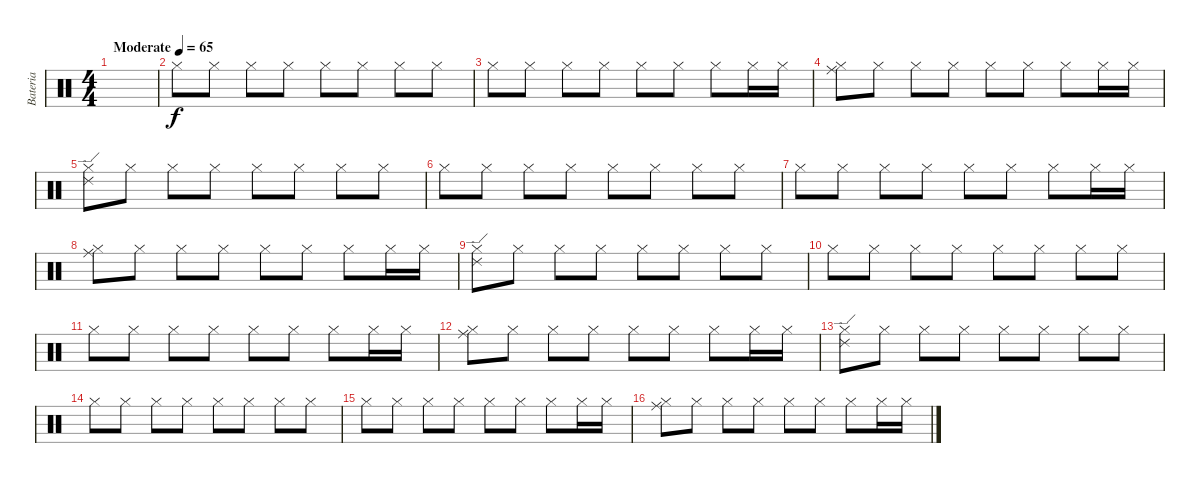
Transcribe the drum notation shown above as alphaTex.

\track ("Bateria" "Bateria") {instrument percussion}
\staff {score}
\articulation defaults
\ts (4 4)
\tempo (65 "Moderate")
\clef neutral
\ks c
|
"Hi-Hat (closed)".8 "Hi-Hat (closed)".8 "Hi-Hat (closed)".8 "Hi-Hat (closed)".8 "Hi-Hat (closed)".8 "Hi-Hat (closed)".8 "Hi-Hat (closed)".8 "Hi-Hat (closed)".8 |
"Hi-Hat (closed)".8 "Hi-Hat (closed)".8 "Hi-Hat (closed)".8 "Hi-Hat (closed)".8 "Hi-Hat (closed)".8 "Hi-Hat (closed)".8 "Hi-Hat (closed)".8 "Hi-Hat (closed)".16 "Hi-Hat (closed)".16 |
("Hi-Hat (closed)" "Ride (middle)").8 "Hi-Hat (closed)".8 "Hi-Hat (closed)".8 "Hi-Hat (closed)".8 "Hi-Hat (closed)".8 "Hi-Hat (closed)".8 "Hi-Hat (closed)".8 "Hi-Hat (closed)".16 "Hi-Hat (closed)".16 |
("Hi-Hat (closed)" "Ride (edge) 2").8 "Hi-Hat (closed)".8 "Hi-Hat (closed)".8 "Hi-Hat (closed)".8 "Hi-Hat (closed)".8 "Hi-Hat (closed)".8 "Hi-Hat (closed)".8 "Hi-Hat (closed)".8 |
"Hi-Hat (closed)".8 "Hi-Hat (closed)".8 "Hi-Hat (closed)".8 "Hi-Hat (closed)".8 "Hi-Hat (closed)".8 "Hi-Hat (closed)".8 "Hi-Hat (closed)".8 "Hi-Hat (closed)".8 |
"Hi-Hat (closed)".8 "Hi-Hat (closed)".8 "Hi-Hat (closed)".8 "Hi-Hat (closed)".8 "Hi-Hat (closed)".8 "Hi-Hat (closed)".8 "Hi-Hat (closed)".8 "Hi-Hat (closed)".16 "Hi-Hat (closed)".16 |
("Hi-Hat (closed)" "Ride (middle)").8 "Hi-Hat (closed)".8 "Hi-Hat (closed)".8 "Hi-Hat (closed)".8 "Hi-Hat (closed)".8 "Hi-Hat (closed)".8 "Hi-Hat (closed)".8 "Hi-Hat (closed)".16 "Hi-Hat (closed)".16 |
("Hi-Hat (closed)" "Ride (edge) 2").8 "Hi-Hat (closed)".8 "Hi-Hat (closed)".8 "Hi-Hat (closed)".8 "Hi-Hat (closed)".8 "Hi-Hat (closed)".8 "Hi-Hat (closed)".8 "Hi-Hat (closed)".8 |
"Hi-Hat (closed)".8 "Hi-Hat (closed)".8 "Hi-Hat (closed)".8 "Hi-Hat (closed)".8 "Hi-Hat (closed)".8 "Hi-Hat (closed)".8 "Hi-Hat (closed)".8 "Hi-Hat (closed)".8 |
"Hi-Hat (closed)".8 "Hi-Hat (closed)".8 "Hi-Hat (closed)".8 "Hi-Hat (closed)".8 "Hi-Hat (closed)".8 "Hi-Hat (closed)".8 "Hi-Hat (closed)".8 "Hi-Hat (closed)".16 "Hi-Hat (closed)".16 |
("Hi-Hat (closed)" "Ride (middle)").8 "Hi-Hat (closed)".8 "Hi-Hat (closed)".8 "Hi-Hat (closed)".8 "Hi-Hat (closed)".8 "Hi-Hat (closed)".8 "Hi-Hat (closed)".8 "Hi-Hat (closed)".16 "Hi-Hat (closed)".16 |
("Hi-Hat (closed)" "Ride (edge) 2").8 "Hi-Hat (closed)".8 "Hi-Hat (closed)".8 "Hi-Hat (closed)".8 "Hi-Hat (closed)".8 "Hi-Hat (closed)".8 "Hi-Hat (closed)".8 "Hi-Hat (closed)".8 |
"Hi-Hat (closed)".8 "Hi-Hat (closed)".8 "Hi-Hat (closed)".8 "Hi-Hat (closed)".8 "Hi-Hat (closed)".8 "Hi-Hat (closed)".8 "Hi-Hat (closed)".8 "Hi-Hat (closed)".8 |
"Hi-Hat (closed)".8 "Hi-Hat (closed)".8 "Hi-Hat (closed)".8 "Hi-Hat (closed)".8 "Hi-Hat (closed)".8 "Hi-Hat (closed)".8 "Hi-Hat (closed)".8 "Hi-Hat (closed)".16 "Hi-Hat (closed)".16 |
("Hi-Hat (closed)" "Ride (middle)").8 "Hi-Hat (closed)".8 "Hi-Hat (closed)".8 "Hi-Hat (closed)".8 "Hi-Hat (closed)".8 "Hi-Hat (closed)".8 "Hi-Hat (closed)".8 "Hi-Hat (closed)".16 "Hi-Hat (closed)".16
